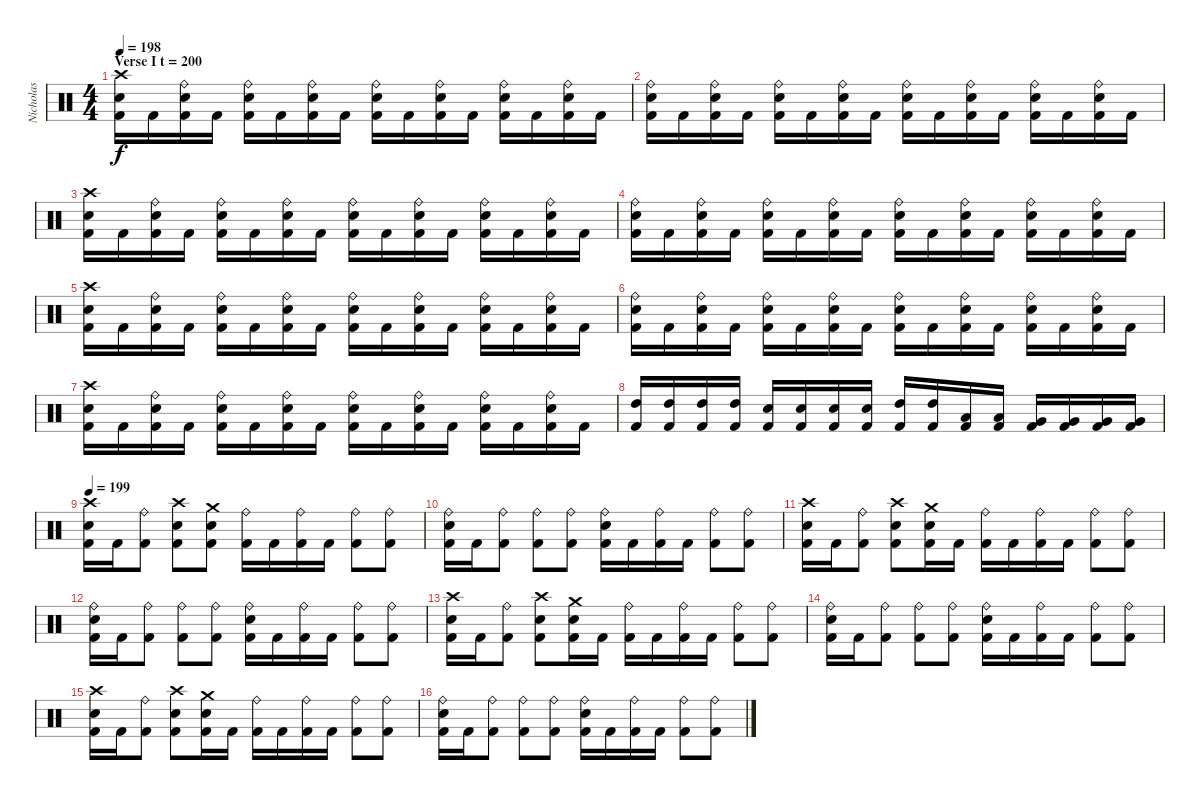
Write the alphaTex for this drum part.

\track ("Nicholas" "Nicholas") {instrument percussion}
\staff {score}
\articulation defaults
\ts (4 4)
\section ("" "Verse I t = 200")
\tempo 198
\tempo 200
\tempo 198
\clef neutral
\ks c
("Crash high (hit)" "Electric Snare (hit)" "Kick (hit) 2").16{dy f} "Kick (hit) 2".16 ("Ride (bell)" "Electric Snare (hit)" "Kick (hit) 2").16 "Kick (hit) 2".16 ("Ride (bell)" "Electric Snare (hit)" "Kick (hit) 2").16 "Kick (hit) 2".16 ("Ride (bell)" "Electric Snare (hit)" "Kick (hit) 2").16 "Kick (hit) 2".16 ("Ride (bell)" "Electric Snare (hit)" "Kick (hit) 2").16 "Kick (hit) 2".16 ("Ride (bell)" "Electric Snare (hit)" "Kick (hit) 2").16 "Kick (hit) 2".16 ("Ride (bell)" "Electric Snare (hit)" "Kick (hit) 2").16 "Kick (hit) 2".16 ("Ride (bell)" "Electric Snare (hit)" "Kick (hit) 2").16 "Kick (hit) 2".16 |
("Ride (bell)" "Electric Snare (hit)" "Kick (hit) 2").16 "Kick (hit) 2".16 ("Ride (bell)" "Electric Snare (hit)" "Kick (hit) 2").16 "Kick (hit) 2".16 ("Ride (bell)" "Electric Snare (hit)" "Kick (hit) 2").16 "Kick (hit) 2".16 ("Ride (bell)" "Electric Snare (hit)" "Kick (hit) 2").16 "Kick (hit) 2".16 ("Ride (bell)" "Electric Snare (hit)" "Kick (hit) 2").16 "Kick (hit) 2".16 ("Ride (bell)" "Electric Snare (hit)" "Kick (hit) 2").16 "Kick (hit) 2".16 ("Ride (bell)" "Electric Snare (hit)" "Kick (hit) 2").16 "Kick (hit) 2".16 ("Ride (bell)" "Electric Snare (hit)" "Kick (hit) 2").16 "Kick (hit) 2".16 |
("Crash high (hit)" "Electric Snare (hit)" "Kick (hit) 2").16 "Kick (hit) 2".16 ("Ride (bell)" "Electric Snare (hit)" "Kick (hit) 2").16 "Kick (hit) 2".16 ("Ride (bell)" "Electric Snare (hit)" "Kick (hit) 2").16 "Kick (hit) 2".16 ("Ride (bell)" "Electric Snare (hit)" "Kick (hit) 2").16 "Kick (hit) 2".16 ("Ride (bell)" "Electric Snare (hit)" "Kick (hit) 2").16 "Kick (hit) 2".16 ("Ride (bell)" "Electric Snare (hit)" "Kick (hit) 2").16 "Kick (hit) 2".16 ("Ride (bell)" "Electric Snare (hit)" "Kick (hit) 2").16 "Kick (hit) 2".16 ("Ride (bell)" "Electric Snare (hit)" "Kick (hit) 2").16 "Kick (hit) 2".16 |
("Ride (bell)" "Electric Snare (hit)" "Kick (hit) 2").16 "Kick (hit) 2".16 ("Ride (bell)" "Electric Snare (hit)" "Kick (hit) 2").16 "Kick (hit) 2".16 ("Ride (bell)" "Electric Snare (hit)" "Kick (hit) 2").16 "Kick (hit) 2".16 ("Ride (bell)" "Electric Snare (hit)" "Kick (hit) 2").16 "Kick (hit) 2".16 ("Ride (bell)" "Electric Snare (hit)" "Kick (hit) 2").16 "Kick (hit) 2".16 ("Ride (bell)" "Electric Snare (hit)" "Kick (hit) 2").16 "Kick (hit) 2".16 ("Ride (bell)" "Electric Snare (hit)" "Kick (hit) 2").16 "Kick (hit) 2".16 ("Ride (bell)" "Electric Snare (hit)" "Kick (hit) 2").16 "Kick (hit) 2".16 |
("Crash high (hit)" "Electric Snare (hit)" "Kick (hit) 2").16 "Kick (hit) 2".16 ("Ride (bell)" "Electric Snare (hit)" "Kick (hit) 2").16 "Kick (hit) 2".16 ("Ride (bell)" "Electric Snare (hit)" "Kick (hit) 2").16 "Kick (hit) 2".16 ("Ride (bell)" "Electric Snare (hit)" "Kick (hit) 2").16 "Kick (hit) 2".16 ("Ride (bell)" "Electric Snare (hit)" "Kick (hit) 2").16 "Kick (hit) 2".16 ("Ride (bell)" "Electric Snare (hit)" "Kick (hit) 2").16 "Kick (hit) 2".16 ("Ride (bell)" "Electric Snare (hit)" "Kick (hit) 2").16 "Kick (hit) 2".16 ("Ride (bell)" "Electric Snare (hit)" "Kick (hit) 2").16 "Kick (hit) 2".16 |
("Ride (bell)" "Electric Snare (hit)" "Kick (hit) 2").16 "Kick (hit) 2".16 ("Ride (bell)" "Electric Snare (hit)" "Kick (hit) 2").16 "Kick (hit) 2".16 ("Ride (bell)" "Electric Snare (hit)" "Kick (hit) 2").16 "Kick (hit) 2".16 ("Ride (bell)" "Electric Snare (hit)" "Kick (hit) 2").16 "Kick (hit) 2".16 ("Ride (bell)" "Electric Snare (hit)" "Kick (hit) 2").16 "Kick (hit) 2".16 ("Ride (bell)" "Electric Snare (hit)" "Kick (hit) 2").16 "Kick (hit) 2".16 ("Ride (bell)" "Electric Snare (hit)" "Kick (hit) 2").16 "Kick (hit) 2".16 ("Ride (bell)" "Electric Snare (hit)" "Kick (hit) 2").16 "Kick (hit) 2".16 |
("Crash high (hit)" "Electric Snare (hit)" "Kick (hit) 2").16 "Kick (hit) 2".16 ("Ride (bell)" "Electric Snare (hit)" "Kick (hit) 2").16 "Kick (hit) 2".16 ("Ride (bell)" "Electric Snare (hit)" "Kick (hit) 2").16 "Kick (hit) 2".16 ("Ride (bell)" "Electric Snare (hit)" "Kick (hit) 2").16 "Kick (hit) 2".16 ("Ride (bell)" "Electric Snare (hit)" "Kick (hit) 2").16 "Kick (hit) 2".16 ("Ride (bell)" "Electric Snare (hit)" "Kick (hit) 2").16 "Kick (hit) 2".16 ("Ride (bell)" "Electric Snare (hit)" "Kick (hit) 2").16 "Kick (hit) 2".16 ("Ride (bell)" "Electric Snare (hit)" "Kick (hit) 2").16 "Kick (hit) 2".16 |
("High Tom (hit)" "Kick (hit) 2").16 ("High Tom (hit)" "Kick (hit) 2").16 ("High Tom (hit)" "Kick (hit) 2").16 ("High Tom (hit)" "Kick (hit) 2").16 ("Electric Snare (hit)" "Kick (hit) 2").16 ("Electric Snare (hit)" "Kick (hit) 2").16 ("Electric Snare (hit)" "Kick (hit) 2").16 ("Electric Snare (hit)" "Kick (hit) 2").16 ("High Tom (hit)" "Kick (hit) 2").16 ("High Tom (hit)" "Kick (hit) 2").16 ("Low Tom (hit)" "Kick (hit) 2").16 ("Low Tom (hit)" "Kick (hit) 2").16 ("Very Low Tom (hit)" "Kick (hit) 2").16 ("Very Low Tom (hit)" "Kick (hit) 2").16 ("Very Low Tom (hit)" "Kick (hit) 2").16 ("Very Low Tom (hit)" "Kick (hit) 2").16 |
\tempo 199
("Crash high (hit)" "Electric Snare (hit)" "Kick (hit) 2").16 "Kick (hit) 2".16 ("Ride (bell)" "Kick (hit) 2").8 ("Crash high (hit)" "Electric Snare (hit)" "Kick (hit) 2").8 ("Crash medium (hit)" "Electric Snare (hit)" "Kick (hit) 2").8 ("Ride (bell)" "Kick (hit) 2").16 "Kick (hit) 2".16 ("Ride (bell)" "Kick (hit) 2").16 "Kick (hit) 2".16 ("Ride (bell)" "Kick (hit) 2").8 ("Ride (bell)" "Kick (hit) 2").8 |
("Ride (bell)" "Electric Snare (hit)" "Kick (hit) 2").16 "Kick (hit) 2".16 ("Ride (bell)" "Kick (hit) 2").8 ("Ride (bell)" "Kick (hit) 2").8 ("Ride (bell)" "Kick (hit) 2").8 ("Ride (bell)" "Electric Snare (hit)" "Kick (hit) 2").16 "Kick (hit) 2".16 ("Ride (bell)" "Kick (hit) 2").16 "Kick (hit) 2".16 ("Ride (bell)" "Kick (hit) 2").8 ("Ride (bell)" "Kick (hit) 2").8 |
("Crash high (hit)" "Electric Snare (hit)" "Kick (hit) 2").16 "Kick (hit) 2".16 ("Ride (bell)" "Kick (hit) 2").8 ("Crash high (hit)" "Electric Snare (hit)" "Kick (hit) 2").8 ("Crash medium (hit)" "Electric Snare (hit)" "Kick (hit) 2").16 "Kick (hit) 2".16 ("Ride (bell)" "Kick (hit) 2").16 "Kick (hit) 2".16 ("Ride (bell)" "Kick (hit) 2").16 "Kick (hit) 2".16 ("Ride (bell)" "Kick (hit) 2").8 ("Ride (bell)" "Kick (hit) 2").8 |
("Ride (bell)" "Electric Snare (hit)" "Kick (hit) 2").16 "Kick (hit) 2".16 ("Ride (bell)" "Kick (hit) 2").8 ("Ride (bell)" "Kick (hit) 2").8 ("Ride (bell)" "Kick (hit) 2").8 ("Ride (bell)" "Electric Snare (hit)" "Kick (hit) 2").16 "Kick (hit) 2".16 ("Ride (bell)" "Kick (hit) 2").16 "Kick (hit) 2".16 ("Ride (bell)" "Kick (hit) 2").8 ("Ride (bell)" "Kick (hit) 2").8 |
("Crash high (hit)" "Electric Snare (hit)" "Kick (hit) 2").16 "Kick (hit) 2".16 ("Ride (bell)" "Kick (hit) 2").8 ("Crash high (hit)" "Electric Snare (hit)" "Kick (hit) 2").8 ("Crash medium (hit)" "Electric Snare (hit)" "Kick (hit) 2").16 "Kick (hit) 2".16 ("Ride (bell)" "Kick (hit) 2").16 "Kick (hit) 2".16 ("Ride (bell)" "Kick (hit) 2").16 "Kick (hit) 2".16 ("Ride (bell)" "Kick (hit) 2").8 ("Ride (bell)" "Kick (hit) 2").8 |
("Ride (bell)" "Electric Snare (hit)" "Kick (hit) 2").16 "Kick (hit) 2".16 ("Ride (bell)" "Kick (hit) 2").8 ("Ride (bell)" "Kick (hit) 2").8 ("Ride (bell)" "Kick (hit) 2").8 ("Ride (bell)" "Electric Snare (hit)" "Kick (hit) 2").16 "Kick (hit) 2".16 ("Ride (bell)" "Kick (hit) 2").16 "Kick (hit) 2".16 ("Ride (bell)" "Kick (hit) 2").8 ("Ride (bell)" "Kick (hit) 2").8 |
("Crash high (hit)" "Electric Snare (hit)" "Kick (hit) 2").16 "Kick (hit) 2".16 ("Ride (bell)" "Kick (hit) 2").8 ("Crash high (hit)" "Electric Snare (hit)" "Kick (hit) 2").8 ("Crash medium (hit)" "Electric Snare (hit)" "Kick (hit) 2").16 "Kick (hit) 2".16 ("Ride (bell)" "Kick (hit) 2").16 "Kick (hit) 2".16 ("Ride (bell)" "Kick (hit) 2").16 "Kick (hit) 2".16 ("Ride (bell)" "Kick (hit) 2").8 ("Ride (bell)" "Kick (hit) 2").8 |
("Ride (bell)" "Electric Snare (hit)" "Kick (hit) 2").16 "Kick (hit) 2".16 ("Ride (bell)" "Kick (hit) 2").8 ("Ride (bell)" "Kick (hit) 2").8 ("Ride (bell)" "Kick (hit) 2").8 ("Ride (bell)" "Electric Snare (hit)" "Kick (hit) 2").16 "Kick (hit) 2".16 ("Ride (bell)" "Kick (hit) 2").16 "Kick (hit) 2".16 ("Ride (bell)" "Kick (hit) 2").8 ("Ride (bell)" "Kick (hit) 2").8
